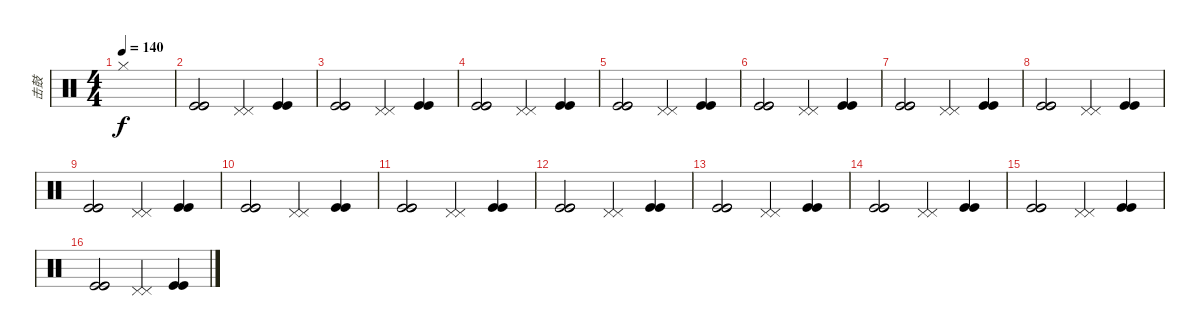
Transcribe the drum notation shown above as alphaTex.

\track ("击鼓" "击鼓") {instrument percussion}
\staff {score}
\articulation defaults
\ts (4 4)
\tempo 140
\clef neutral
\ks c "Hi-Hat (closed)".1{dy f}
|
("Kick (hit)" "Kick (hit)" "Kick (hit)").2 ("Pedal Hi-Hat (hit)" "Pedal Hi-Hat (hit)").4 ("Kick (hit)" "Kick (hit)").4 |
("Kick (hit)" "Kick (hit)" "Kick (hit)").2 ("Pedal Hi-Hat (hit)" "Pedal Hi-Hat (hit)").4 ("Kick (hit)" "Kick (hit)").4 |
("Kick (hit)" "Kick (hit)" "Kick (hit)").2 ("Pedal Hi-Hat (hit)" "Pedal Hi-Hat (hit)").4 ("Kick (hit)" "Kick (hit)").4 |
("Kick (hit)" "Kick (hit)" "Kick (hit)").2 ("Pedal Hi-Hat (hit)" "Pedal Hi-Hat (hit)").4 ("Kick (hit)" "Kick (hit)").4 |
("Kick (hit)" "Kick (hit)" "Kick (hit)").2 ("Pedal Hi-Hat (hit)" "Pedal Hi-Hat (hit)").4 ("Kick (hit)" "Kick (hit)").4 |
("Kick (hit)" "Kick (hit)" "Kick (hit)").2 ("Pedal Hi-Hat (hit)" "Pedal Hi-Hat (hit)").4 ("Kick (hit)" "Kick (hit)").4 |
("Kick (hit)" "Kick (hit)" "Kick (hit)").2 ("Pedal Hi-Hat (hit)" "Pedal Hi-Hat (hit)").4 ("Kick (hit)" "Kick (hit)").4 |
("Kick (hit)" "Kick (hit)" "Kick (hit)").2 ("Pedal Hi-Hat (hit)" "Pedal Hi-Hat (hit)").4 ("Kick (hit)" "Kick (hit)").4 |
("Kick (hit)" "Kick (hit)" "Kick (hit)").2 ("Pedal Hi-Hat (hit)" "Pedal Hi-Hat (hit)").4 ("Kick (hit)" "Kick (hit)").4 |
("Kick (hit)" "Kick (hit)" "Kick (hit)").2 ("Pedal Hi-Hat (hit)" "Pedal Hi-Hat (hit)").4 ("Kick (hit)" "Kick (hit)").4 |
("Kick (hit)" "Kick (hit)" "Kick (hit)").2 ("Pedal Hi-Hat (hit)" "Pedal Hi-Hat (hit)").4 ("Kick (hit)" "Kick (hit)").4 |
("Kick (hit)" "Kick (hit)" "Kick (hit)").2 ("Pedal Hi-Hat (hit)" "Pedal Hi-Hat (hit)").4 ("Kick (hit)" "Kick (hit)").4 |
("Kick (hit)" "Kick (hit)" "Kick (hit)").2 ("Pedal Hi-Hat (hit)" "Pedal Hi-Hat (hit)").4 ("Kick (hit)" "Kick (hit)").4 |
("Kick (hit)" "Kick (hit)" "Kick (hit)").2 ("Pedal Hi-Hat (hit)" "Pedal Hi-Hat (hit)").4 ("Kick (hit)" "Kick (hit)").4 |
("Kick (hit)" "Kick (hit)" "Kick (hit)").2 ("Pedal Hi-Hat (hit)" "Pedal Hi-Hat (hit)").4 ("Kick (hit)" "Kick (hit)").4
